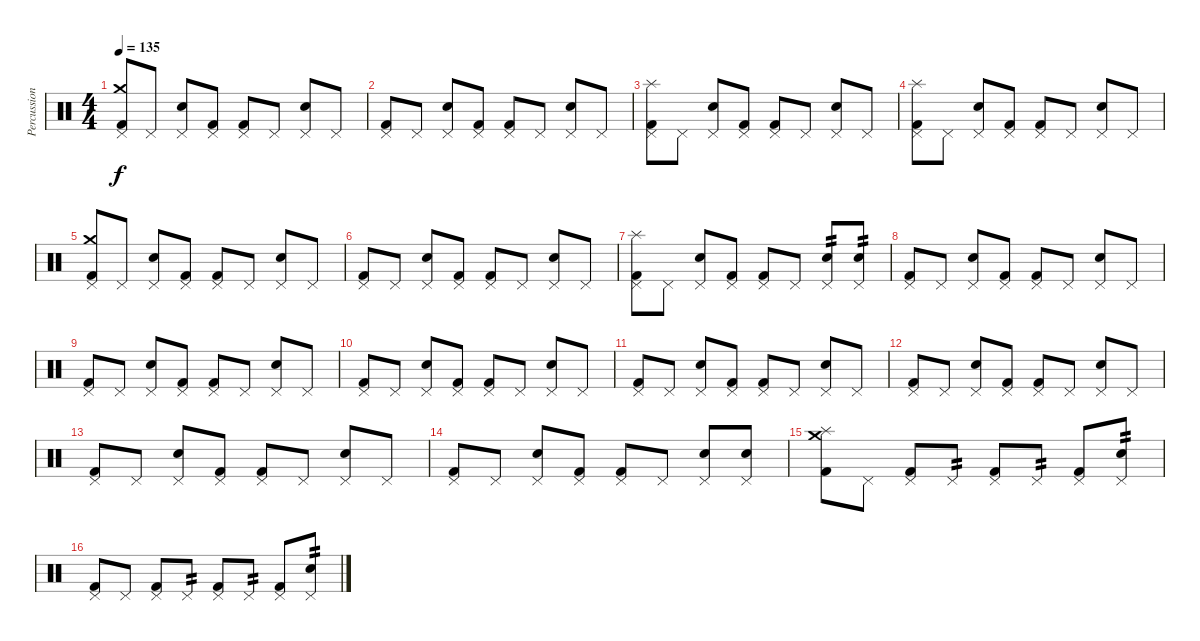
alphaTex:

\track ("Percussion" "Percussion") {instrument percussion}
\staff {score}
\articulation defaults
\ts (4 4)
\tempo 135
\clef neutral
\ks c
("Kick (hit) 2" "Crash medium (hit)" "Pedal Hi-Hat (hit)").8{dy f} "Pedal Hi-Hat (hit)".8 ("Snare (hit) 2" "Pedal Hi-Hat (hit)").8 ("Kick (hit) 2" "Pedal Hi-Hat (hit)").8 ("Kick (hit) 2" "Pedal Hi-Hat (hit)").8 "Pedal Hi-Hat (hit)".8 ("Snare (hit) 2" "Pedal Hi-Hat (hit)").8 "Pedal Hi-Hat (hit)".8 |
("Kick (hit) 2" "Pedal Hi-Hat (hit)").8 "Pedal Hi-Hat (hit)".8 ("Snare (hit) 2" "Pedal Hi-Hat (hit)").8 ("Kick (hit) 2" "Pedal Hi-Hat (hit)").8 ("Kick (hit) 2" "Pedal Hi-Hat (hit)").8 "Pedal Hi-Hat (hit)".8 ("Snare (hit) 2" "Pedal Hi-Hat (hit)").8 "Pedal Hi-Hat (hit)".8 |
("Kick (hit) 2" "Splash (hit)" "Pedal Hi-Hat (hit)").8 "Pedal Hi-Hat (hit)".8 ("Snare (hit) 2" "Pedal Hi-Hat (hit)").8 ("Kick (hit) 2" "Pedal Hi-Hat (hit)").8 ("Kick (hit) 2" "Pedal Hi-Hat (hit)").8 "Pedal Hi-Hat (hit)".8 ("Snare (hit) 2" "Pedal Hi-Hat (hit)").8 "Pedal Hi-Hat (hit)".8 |
("Kick (hit) 2" "Splash (hit)" "Pedal Hi-Hat (hit)").8 "Pedal Hi-Hat (hit)".8 ("Snare (hit) 2" "Pedal Hi-Hat (hit)").8 ("Kick (hit) 2" "Pedal Hi-Hat (hit)").8 ("Kick (hit) 2" "Pedal Hi-Hat (hit)").8 "Pedal Hi-Hat (hit)".8 ("Snare (hit) 2" "Pedal Hi-Hat (hit)").8 "Pedal Hi-Hat (hit)".8 |
("Kick (hit) 2" "Crash medium (hit)" "Pedal Hi-Hat (hit)").8 "Pedal Hi-Hat (hit)".8 ("Snare (hit) 2" "Pedal Hi-Hat (hit)").8 ("Kick (hit) 2" "Pedal Hi-Hat (hit)").8 ("Kick (hit) 2" "Pedal Hi-Hat (hit)").8 "Pedal Hi-Hat (hit)".8 ("Snare (hit) 2" "Pedal Hi-Hat (hit)").8 "Pedal Hi-Hat (hit)".8 |
("Kick (hit) 2" "Pedal Hi-Hat (hit)").8 "Pedal Hi-Hat (hit)".8 ("Snare (hit) 2" "Pedal Hi-Hat (hit)").8 ("Kick (hit) 2" "Pedal Hi-Hat (hit)").8 ("Kick (hit) 2" "Pedal Hi-Hat (hit)").8 "Pedal Hi-Hat (hit)".8 ("Snare (hit) 2" "Pedal Hi-Hat (hit)").8 "Pedal Hi-Hat (hit)".8 |
("Kick (hit) 2" "Splash (hit)" "Pedal Hi-Hat (hit)").8 "Pedal Hi-Hat (hit)".8 ("Snare (hit) 2" "Pedal Hi-Hat (hit)").8 ("Kick (hit) 2" "Pedal Hi-Hat (hit)").8 ("Kick (hit) 2" "Pedal Hi-Hat (hit)").8 "Pedal Hi-Hat (hit)".8 ("Snare (hit) 2" "Pedal Hi-Hat (hit)").8{tp 2} ("Snare (hit) 2" "Pedal Hi-Hat (hit)").8{tp 2} |
("Kick (hit) 2" "Pedal Hi-Hat (hit)").8 "Pedal Hi-Hat (hit)".8 ("Snare (hit) 2" "Pedal Hi-Hat (hit)").8 ("Kick (hit) 2" "Pedal Hi-Hat (hit)").8 ("Kick (hit) 2" "Pedal Hi-Hat (hit)").8 "Pedal Hi-Hat (hit)".8 ("Snare (hit) 2" "Pedal Hi-Hat (hit)").8 "Pedal Hi-Hat (hit)".8 |
("Kick (hit) 2" "Pedal Hi-Hat (hit)").8 "Pedal Hi-Hat (hit)".8 ("Snare (hit) 2" "Pedal Hi-Hat (hit)").8 ("Kick (hit) 2" "Pedal Hi-Hat (hit)").8 ("Kick (hit) 2" "Pedal Hi-Hat (hit)").8 "Pedal Hi-Hat (hit)".8 ("Snare (hit) 2" "Pedal Hi-Hat (hit)").8 "Pedal Hi-Hat (hit)".8 |
("Kick (hit) 2" "Pedal Hi-Hat (hit)").8 "Pedal Hi-Hat (hit)".8 ("Snare (hit) 2" "Pedal Hi-Hat (hit)").8 ("Kick (hit) 2" "Pedal Hi-Hat (hit)").8 ("Kick (hit) 2" "Pedal Hi-Hat (hit)").8 "Pedal Hi-Hat (hit)".8 ("Snare (hit) 2" "Pedal Hi-Hat (hit)").8 "Pedal Hi-Hat (hit)".8 |
("Kick (hit) 2" "Pedal Hi-Hat (hit)").8 "Pedal Hi-Hat (hit)".8 ("Snare (hit) 2" "Pedal Hi-Hat (hit)").8 ("Kick (hit) 2" "Pedal Hi-Hat (hit)").8 ("Kick (hit) 2" "Pedal Hi-Hat (hit)").8 "Pedal Hi-Hat (hit)".8 ("Snare (hit) 2" "Pedal Hi-Hat (hit)").8 "Pedal Hi-Hat (hit)".8 |
("Kick (hit) 2" "Pedal Hi-Hat (hit)").8 "Pedal Hi-Hat (hit)".8 ("Snare (hit) 2" "Pedal Hi-Hat (hit)").8 ("Kick (hit) 2" "Pedal Hi-Hat (hit)").8 ("Kick (hit) 2" "Pedal Hi-Hat (hit)").8 "Pedal Hi-Hat (hit)".8 ("Snare (hit) 2" "Pedal Hi-Hat (hit)").8 "Pedal Hi-Hat (hit)".8 |
("Kick (hit) 2" "Pedal Hi-Hat (hit)").8 "Pedal Hi-Hat (hit)".8 ("Snare (hit) 2" "Pedal Hi-Hat (hit)").8 ("Kick (hit) 2" "Pedal Hi-Hat (hit)").8 ("Kick (hit) 2" "Pedal Hi-Hat (hit)").8 "Pedal Hi-Hat (hit)".8 ("Snare (hit) 2" "Pedal Hi-Hat (hit)").8 "Pedal Hi-Hat (hit)".8 |
("Kick (hit) 2" "Pedal Hi-Hat (hit)").8 "Pedal Hi-Hat (hit)".8 ("Snare (hit) 2" "Pedal Hi-Hat (hit)").8 ("Kick (hit) 2" "Pedal Hi-Hat (hit)").8 ("Kick (hit) 2" "Pedal Hi-Hat (hit)").8 "Pedal Hi-Hat (hit)".8 ("Snare (hit) 2" "Pedal Hi-Hat (hit)").8 ("Snare (hit) 2" "Pedal Hi-Hat (hit)").8 |
("Kick (hit) 2" "Splash (hit)" "Crash medium (hit)").8 "Pedal Hi-Hat (hit)".8 ("Kick (hit) 2" "Pedal Hi-Hat (hit)").8 "Pedal Hi-Hat (hit)".8{tp 2} ("Kick (hit) 2" "Pedal Hi-Hat (hit)").8 "Pedal Hi-Hat (hit)".8{tp 2} ("Kick (hit) 2" "Pedal Hi-Hat (hit)").8 ("Snare (hit) 2" "Pedal Hi-Hat (hit)").8{tp 2} |
("Kick (hit) 2" "Pedal Hi-Hat (hit)").8 "Pedal Hi-Hat (hit)".8 ("Kick (hit) 2" "Pedal Hi-Hat (hit)").8 "Pedal Hi-Hat (hit)".8{tp 2} ("Kick (hit) 2" "Pedal Hi-Hat (hit)").8 "Pedal Hi-Hat (hit)".8{tp 2} ("Kick (hit) 2" "Pedal Hi-Hat (hit)").8 ("Snare (hit) 2" "Pedal Hi-Hat (hit)").8{tp 2}
